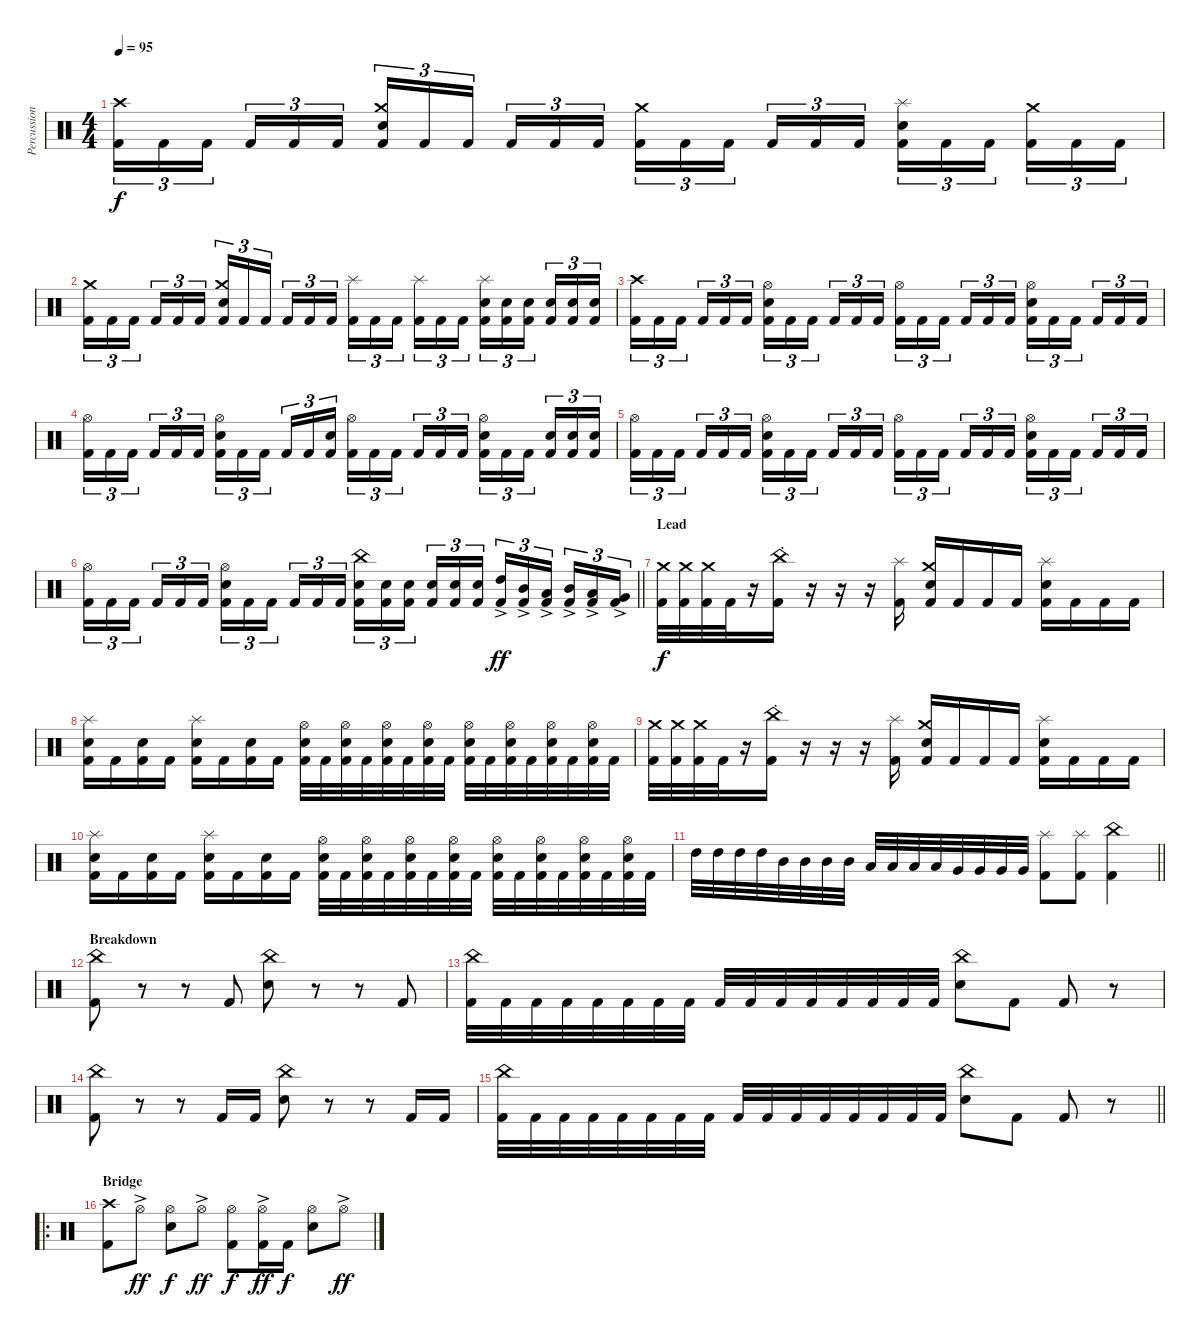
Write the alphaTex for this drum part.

\track ("Percussion" "Percussion") {instrument percussion}
\staff {score}
\articulation defaults
\ts (4 4)
\tempo 95
\clef neutral
\ks c
("Crash high (hit)" "Kick (hit) 2").16{tu (3 2) dy f} "Kick (hit) 2".16{tu (3 2)} "Kick (hit) 2".16{tu (3 2) beam splitsecondary} "Kick (hit) 2".16{tu (3 2)} "Kick (hit) 2".16{tu (3 2)} "Kick (hit) 2".16{tu (3 2)} ("Crash medium (hit)" "Electric Snare (hit)" "Kick (hit) 2").16{tu (3 2)} "Kick (hit) 2".16{tu (3 2)} "Kick (hit) 2".16{tu (3 2) beam splitsecondary} "Kick (hit) 2".16{tu (3 2)} "Kick (hit) 2".16{tu (3 2)} "Kick (hit) 2".16{tu (3 2)} ("Crash medium (hit)" "Kick (hit) 2").16{tu (3 2)} "Kick (hit) 2".16{tu (3 2)} "Kick (hit) 2".16{tu (3 2) beam splitsecondary} "Kick (hit) 2".16{tu (3 2)} "Kick (hit) 2".16{tu (3 2)} "Kick (hit) 2".16{tu (3 2)} ("Splash (hit)" "Electric Snare (hit)" "Kick (hit) 2").16{tu (3 2)} "Kick (hit) 2".16{tu (3 2)} "Kick (hit) 2".16{tu (3 2) beam splitsecondary} ("Crash medium (hit)" "Kick (hit) 2").16{tu (3 2)} "Kick (hit) 2".16{tu (3 2)} "Kick (hit) 2".16{tu (3 2)} |
("Crash medium (hit)" "Kick (hit) 2").16{tu (3 2)} "Kick (hit) 2".16{tu (3 2)} "Kick (hit) 2".16{tu (3 2) beam splitsecondary} "Kick (hit) 2".16{tu (3 2)} "Kick (hit) 2".16{tu (3 2)} "Kick (hit) 2".16{tu (3 2)} ("Crash medium (hit)" "Electric Snare (hit)" "Kick (hit) 2").16{tu (3 2)} "Kick (hit) 2".16{tu (3 2)} "Kick (hit) 2".16{tu (3 2) beam splitsecondary} "Kick (hit) 2".16{tu (3 2)} "Kick (hit) 2".16{tu (3 2)} "Kick (hit) 2".16{tu (3 2)} ("Splash (hit)" "Kick (hit) 2").16{tu (3 2)} "Kick (hit) 2".16{tu (3 2)} "Kick (hit) 2".16{tu (3 2) beam splitsecondary} ("Splash (hit)" "Kick (hit) 2").16{tu (3 2)} "Kick (hit) 2".16{tu (3 2)} "Kick (hit) 2".16{tu (3 2)} ("Splash (hit)" "Electric Snare (hit)" "Kick (hit) 2").16{tu (3 2)} ("Electric Snare (hit)" "Kick (hit) 2").16{tu (3 2)} ("Electric Snare (hit)" "Kick (hit) 2").16{tu (3 2) beam splitsecondary} ("Electric Snare (hit)" "Kick (hit) 2").16{tu (3 2)} ("Electric Snare (hit)" "Kick (hit) 2").16{tu (3 2)} ("Electric Snare (hit)" "Kick (hit) 2").16{tu (3 2)} |
("Crash high (hit)" "Kick (hit) 2").16{tu (3 2)} "Kick (hit) 2".16{tu (3 2)} "Kick (hit) 2".16{tu (3 2) beam splitsecondary} "Kick (hit) 2".16{tu (3 2)} "Kick (hit) 2".16{tu (3 2)} "Kick (hit) 2".16{tu (3 2)} ("Hi-Hat (open)" "Electric Snare (hit)" "Kick (hit) 2").16{tu (3 2)} "Kick (hit) 2".16{tu (3 2)} "Kick (hit) 2".16{tu (3 2) beam splitsecondary} "Kick (hit) 2".16{tu (3 2)} "Kick (hit) 2".16{tu (3 2)} "Kick (hit) 2".16{tu (3 2)} ("Hi-Hat (open)" "Kick (hit) 2").16{tu (3 2)} "Kick (hit) 2".16{tu (3 2)} "Kick (hit) 2".16{tu (3 2) beam splitsecondary} "Kick (hit) 2".16{tu (3 2)} "Kick (hit) 2".16{tu (3 2)} "Kick (hit) 2".16{tu (3 2)} ("Hi-Hat (open)" "Electric Snare (hit)" "Kick (hit) 2").16{tu (3 2)} "Kick (hit) 2".16{tu (3 2)} "Kick (hit) 2".16{tu (3 2) beam splitsecondary} "Kick (hit) 2".16{tu (3 2)} "Kick (hit) 2".16{tu (3 2)} "Kick (hit) 2".16{tu (3 2)} |
("Hi-Hat (open)" "Kick (hit) 2").16{tu (3 2)} "Kick (hit) 2".16{tu (3 2)} "Kick (hit) 2".16{tu (3 2) beam splitsecondary} "Kick (hit) 2".16{tu (3 2)} "Kick (hit) 2".16{tu (3 2)} "Kick (hit) 2".16{tu (3 2)} ("Hi-Hat (open)" "Electric Snare (hit)" "Kick (hit) 2").16{tu (3 2)} "Kick (hit) 2".16{tu (3 2)} "Kick (hit) 2".16{tu (3 2) beam splitsecondary} "Kick (hit) 2".16{tu (3 2)} "Kick (hit) 2".16{tu (3 2)} ("Electric Snare (hit)" "Kick (hit) 2").16{tu (3 2)} ("Hi-Hat (open)" "Kick (hit) 2").16{tu (3 2)} "Kick (hit) 2".16{tu (3 2)} "Kick (hit) 2".16{tu (3 2) beam splitsecondary} "Kick (hit) 2".16{tu (3 2)} "Kick (hit) 2".16{tu (3 2)} "Kick (hit) 2".16{tu (3 2)} ("Hi-Hat (open)" "Electric Snare (hit)" "Kick (hit) 2").16{tu (3 2)} "Kick (hit) 2".16{tu (3 2)} "Kick (hit) 2".16{tu (3 2) beam splitsecondary} ("Electric Snare (hit)" "Kick (hit) 2").16{tu (3 2)} ("Electric Snare (hit)" "Kick (hit) 2").16{tu (3 2)} ("Electric Snare (hit)" "Kick (hit) 2").16{tu (3 2)} |
("Hi-Hat (open)" "Kick (hit) 2").16{tu (3 2)} "Kick (hit) 2".16{tu (3 2)} "Kick (hit) 2".16{tu (3 2) beam splitsecondary} "Kick (hit) 2".16{tu (3 2)} "Kick (hit) 2".16{tu (3 2)} "Kick (hit) 2".16{tu (3 2)} ("Hi-Hat (open)" "Electric Snare (hit)" "Kick (hit) 2").16{tu (3 2)} "Kick (hit) 2".16{tu (3 2)} "Kick (hit) 2".16{tu (3 2) beam splitsecondary} "Kick (hit) 2".16{tu (3 2)} "Kick (hit) 2".16{tu (3 2)} "Kick (hit) 2".16{tu (3 2)} ("Hi-Hat (open)" "Kick (hit) 2").16{tu (3 2)} "Kick (hit) 2".16{tu (3 2)} "Kick (hit) 2".16{tu (3 2) beam splitsecondary} "Kick (hit) 2".16{tu (3 2)} "Kick (hit) 2".16{tu (3 2)} "Kick (hit) 2".16{tu (3 2)} ("Hi-Hat (open)" "Electric Snare (hit)" "Kick (hit) 2").16{tu (3 2)} "Kick (hit) 2".16{tu (3 2)} "Kick (hit) 2".16{tu (3 2) beam splitsecondary} "Kick (hit) 2".16{tu (3 2)} "Kick (hit) 2".16{tu (3 2)} "Kick (hit) 2".16{tu (3 2)} |
\barLineRight lightlight
("Hi-Hat (open)" "Kick (hit) 2").16{tu (3 2)} "Kick (hit) 2".16{tu (3 2)} "Kick (hit) 2".16{tu (3 2) beam splitsecondary} "Kick (hit) 2".16{tu (3 2)} "Kick (hit) 2".16{tu (3 2)} "Kick (hit) 2".16{tu (3 2)} ("Hi-Hat (open)" "Electric Snare (hit)" "Kick (hit) 2").16{tu (3 2)} "Kick (hit) 2".16{tu (3 2)} "Kick (hit) 2".16{tu (3 2) beam splitsecondary} "Kick (hit) 2".16{tu (3 2)} "Kick (hit) 2".16{tu (3 2)} "Kick (hit) 2".16{tu (3 2)} ("China (hit)" "Electric Snare (hit)" "Kick (hit) 2").16{tu (3 2)} ("Electric Snare (hit)" "Kick (hit) 2").16{tu (3 2)} ("Electric Snare (hit)" "Kick (hit) 2").16{tu (3 2) beam splitsecondary} ("Electric Snare (hit)" "Kick (hit) 2").16{tu (3 2)} ("Electric Snare (hit)" "Kick (hit) 2").16{tu (3 2)} ("Electric Snare (hit)" "Kick (hit) 2").16{tu (3 2)} ("High Tom (hit)"{ac} "Kick (hit) 2").16{tu (3 2) dy ff} ("Mid Tom (hit)"{ac} "Kick (hit) 2").16{tu (3 2)} ("Low Tom (hit)"{ac} "Kick (hit) 2").16{tu (3 2) beam splitsecondary} ("Mid Tom (hit)"{ac} "Kick (hit) 2").16{tu (3 2)} ("Low Tom (hit)"{ac} "Kick (hit) 2").16{tu (3 2)} ("Very Low Tom (hit)"{ac} "Kick (hit) 2").16{tu (3 2)} |
\section ("" "Lead")
("Crash medium (hit)" "Kick (hit) 2").32{dy f} ("Crash medium (hit)" "Kick (hit) 2").32 ("Crash medium (hit)" "Kick (hit) 2").32 "Kick (hit) 2".32 r.16 ("China (hit)"{st} "Kick (hit) 2").16 r.16 r.16 r.16 ("Splash (hit)" "Kick (hit) 2").16 ("Crash medium (hit)" "Electric Snare (hit)" "Kick (hit) 2").16 "Kick (hit) 2".16 "Kick (hit) 2".16 "Kick (hit) 2".16 ("Splash (hit)" "Electric Snare (hit)" "Kick (hit) 2").16 "Kick (hit) 2".16 "Kick (hit) 2".16 "Kick (hit) 2".16 |
("Splash (hit)" "Electric Snare (hit)" "Kick (hit) 2").16 "Kick (hit) 2".16 ("Electric Snare (hit)" "Kick (hit) 2").16 "Kick (hit) 2".16 ("Splash (hit)" "Electric Snare (hit)" "Kick (hit) 2").16 "Kick (hit) 2".16 ("Electric Snare (hit)" "Kick (hit) 2").16 "Kick (hit) 2".16 ("Hi-Hat (open)" "Electric Snare (hit)" "Kick (hit) 2").32 "Kick (hit) 2".32 ("Hi-Hat (open)" "Electric Snare (hit)" "Kick (hit) 2").32 "Kick (hit) 2".32 ("Hi-Hat (open)" "Electric Snare (hit)" "Kick (hit) 2").32 "Kick (hit) 2".32 ("Hi-Hat (open)" "Electric Snare (hit)" "Kick (hit) 2").32 "Kick (hit) 2".32 ("Hi-Hat (open)" "Electric Snare (hit)" "Kick (hit) 2").32 "Kick (hit) 2".32 ("Hi-Hat (open)" "Electric Snare (hit)" "Kick (hit) 2").32 "Kick (hit) 2".32 ("Hi-Hat (open)" "Electric Snare (hit)" "Kick (hit) 2").32 "Kick (hit) 2".32 ("Hi-Hat (open)" "Electric Snare (hit)" "Kick (hit) 2").32 "Kick (hit) 2".32 |
("Crash medium (hit)" "Kick (hit) 2").32 ("Crash medium (hit)" "Kick (hit) 2").32 ("Crash medium (hit)" "Kick (hit) 2").32 "Kick (hit) 2".32 r.16 ("China (hit)"{st} "Kick (hit) 2").16 r.16 r.16 r.16 ("Splash (hit)" "Kick (hit) 2").16 ("Crash medium (hit)" "Electric Snare (hit)" "Kick (hit) 2").16 "Kick (hit) 2".16 "Kick (hit) 2".16 "Kick (hit) 2".16 ("Splash (hit)" "Electric Snare (hit)" "Kick (hit) 2").16 "Kick (hit) 2".16 "Kick (hit) 2".16 "Kick (hit) 2".16 |
("Splash (hit)" "Electric Snare (hit)" "Kick (hit) 2").16 "Kick (hit) 2".16 ("Electric Snare (hit)" "Kick (hit) 2").16 "Kick (hit) 2".16 ("Splash (hit)" "Electric Snare (hit)" "Kick (hit) 2").16 "Kick (hit) 2".16 ("Electric Snare (hit)" "Kick (hit) 2").16 "Kick (hit) 2".16 ("Hi-Hat (open)" "Electric Snare (hit)" "Kick (hit) 2").32 "Kick (hit) 2".32 ("Hi-Hat (open)" "Electric Snare (hit)" "Kick (hit) 2").32 "Kick (hit) 2".32 ("Hi-Hat (open)" "Electric Snare (hit)" "Kick (hit) 2").32 "Kick (hit) 2".32 ("Hi-Hat (open)" "Electric Snare (hit)" "Kick (hit) 2").32 "Kick (hit) 2".32 ("Hi-Hat (open)" "Electric Snare (hit)" "Kick (hit) 2").32 "Kick (hit) 2".32 ("Hi-Hat (open)" "Electric Snare (hit)" "Kick (hit) 2").32 "Kick (hit) 2".32 ("Hi-Hat (open)" "Electric Snare (hit)" "Kick (hit) 2").32 "Kick (hit) 2".32 ("Hi-Hat (open)" "Electric Snare (hit)" "Kick (hit) 2").32 "Kick (hit) 2".32 |
\barLineRight lightlight "High Tom (hit)".32 "High Tom (hit)".32 "High Tom (hit)".32 "High Tom (hit)".32 "Mid Tom (hit)".32 "Mid Tom (hit)".32 "Mid Tom (hit)".32 "Mid Tom (hit)".32 "Low Tom (hit)".32 "Low Tom (hit)".32 "Low Tom (hit)".32 "Low Tom (hit)".32 "Very Low Tom (hit)".32 "Very Low Tom (hit)".32 "Very Low Tom (hit)".32 "Very Low Tom (hit)".32
("Splash (hit)" "Kick (hit) 2").8 ("Splash (hit)" "Kick (hit) 2").8 ("China (hit)" "Kick (hit) 2").4 |
\section ("" "Breakdown")
("China (hit)" "Kick (hit) 2").8 r.8 r.8 "Kick (hit) 2".8 ("China (hit)" "Electric Snare (hit)").8 r.8 r.8 "Kick (hit) 2".8 |
("China (hit)" "Kick (hit) 2").32 "Kick (hit) 2".32 "Kick (hit) 2".32 "Kick (hit) 2".32 "Kick (hit) 2".32 "Kick (hit) 2".32 "Kick (hit) 2".32 "Kick (hit) 2".32 "Kick (hit) 2".32 "Kick (hit) 2".32 "Kick (hit) 2".32 "Kick (hit) 2".32 "Kick (hit) 2".32 "Kick (hit) 2".32 "Kick (hit) 2".32 "Kick (hit) 2".32 ("China (hit)" "Electric Snare (hit)").8 "Kick (hit) 2".8 "Kick (hit) 2".8 r.8 |
("China (hit)" "Kick (hit) 2").8 r.8 r.8 "Kick (hit) 2".16 "Kick (hit) 2".16 ("China (hit)" "Electric Snare (hit)").8 r.8 r.8 "Kick (hit) 2".16 "Kick (hit) 2".16 |
\barLineRight lightlight
("China (hit)" "Kick (hit) 2").32 "Kick (hit) 2".32 "Kick (hit) 2".32 "Kick (hit) 2".32 "Kick (hit) 2".32 "Kick (hit) 2".32 "Kick (hit) 2".32 "Kick (hit) 2".32 "Kick (hit) 2".32 "Kick (hit) 2".32 "Kick (hit) 2".32 "Kick (hit) 2".32 "Kick (hit) 2".32 "Kick (hit) 2".32 "Kick (hit) 2".32 "Kick (hit) 2".32 ("China (hit)" "Electric Snare (hit)").8 "Kick (hit) 2".8 "Kick (hit) 2".8 r.8 |
\ro
\section ("" "Bridge")
("Crash high (hit)" "Kick (hit) 2").8 "Hi-Hat (open)"{ac}.8{dy ff} ("Hi-Hat (open)" "Electric Snare (hit)").8{dy f} "Hi-Hat (open)"{ac}.8{dy ff} ("Hi-Hat (open)" "Kick (hit) 2").8{dy f} ("Hi-Hat (open)"{ac} "Kick (hit) 2").16{dy ff} "Kick (hit) 2".16{dy f} ("Hi-Hat (open)" "Electric Snare (hit)").8 "Hi-Hat (open)"{ac}.8{dy ff}
